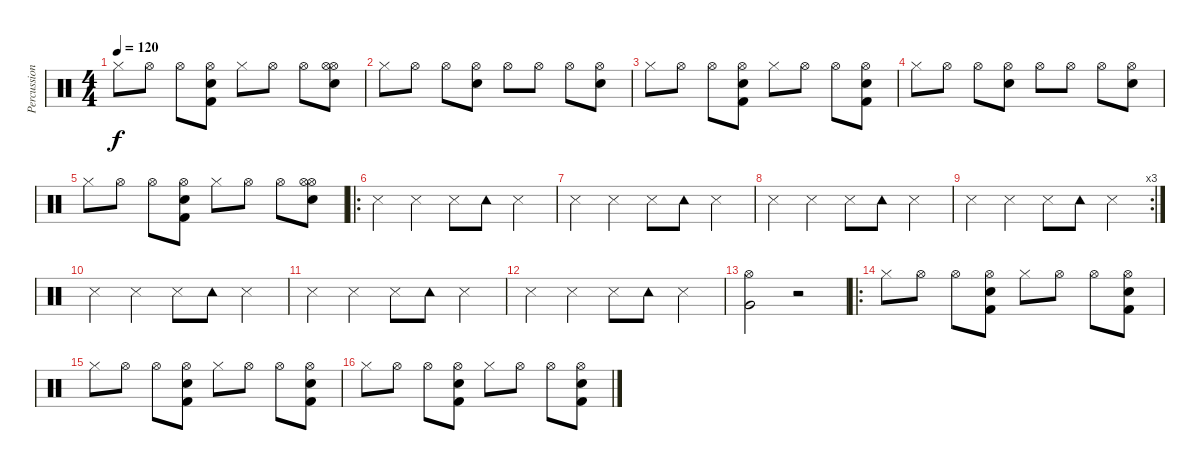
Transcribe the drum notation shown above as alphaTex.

\track ("Percussion" "Percussion") {instrument percussion}
\staff {score}
\articulation defaults
\ts (4 4)
\tempo 120
\clef neutral
\ks c "Hi-Hat (closed)".8{dy f} "Hi-Hat (open)".8 "Hi-Hat (open)".8
("Snare (hit) 2" "Kick (hit) 2" "Hi-Hat (open)").8 "Hi-Hat (closed)".8 "Hi-Hat (open)".8 "Hi-Hat (open)".8 ("Snare (hit) 2" "Hi-Hat (open)" "Hi-Hat (open)").8 |
"Hi-Hat (closed)".8 "Hi-Hat (open)".8 "Hi-Hat (open)".8 ("Snare (hit) 2" "Hi-Hat (open)").8 "Hi-Hat (open)".8 "Hi-Hat (open)".8 "Hi-Hat (open)".8 ("Snare (hit) 2" "Hi-Hat (open)").8 |
"Hi-Hat (closed)".8 "Hi-Hat (open)".8 "Hi-Hat (open)".8 ("Snare (hit) 2" "Kick (hit) 2" "Hi-Hat (open)").8 "Hi-Hat (closed)".8 "Hi-Hat (open)".8 "Hi-Hat (open)".8 ("Snare (hit) 2" "Kick (hit) 2" "Hi-Hat (open)").8 |
"Hi-Hat (closed)".8 "Hi-Hat (open)".8 "Hi-Hat (open)".8 ("Snare (hit) 2" "Hi-Hat (open)").8 "Hi-Hat (open)".8 "Hi-Hat (open)".8 "Hi-Hat (open)".8 ("Snare (hit) 2" "Hi-Hat (open)").8 |
"Hi-Hat (closed)".8 "Hi-Hat (open)".8 "Hi-Hat (open)".8 ("Snare (hit) 2" "Kick (hit) 2" "Hi-Hat (open)").8 "Hi-Hat (closed)".8 "Hi-Hat (open)".8 "Hi-Hat (open)".8 ("Snare (hit) 2" "Hi-Hat (open)" "Hi-Hat (open)").8 |
\ro "Snare (side stick) 3".4 "Snare (side stick) 3".4 "Snare (side stick) 3".8 "Tambourine (hit)".8 "Snare (side stick) 3".4
|
"Snare (side stick) 3".4 "Snare (side stick) 3".4 "Snare (side stick) 3".8 "Tambourine (hit)".8 "Snare (side stick) 3".4 |
"Snare (side stick) 3".4 "Snare (side stick) 3".4 "Snare (side stick) 3".8 "Tambourine (hit)".8 "Snare (side stick) 3".4 |
\rc 3 "Snare (side stick) 3".4 "Snare (side stick) 3".4 "Snare (side stick) 3".8 "Tambourine (hit)".8 "Snare (side stick) 3".4
|
"Snare (side stick) 3".4 "Snare (side stick) 3".4 "Snare (side stick) 3".8 "Tambourine (hit)".8 "Snare (side stick) 3".4 |
"Snare (side stick) 3".4 "Snare (side stick) 3".4 "Snare (side stick) 3".8 "Tambourine (hit)".8 "Snare (side stick) 3".4 |
"Snare (side stick) 3".4 "Snare (side stick) 3".4 "Snare (side stick) 3".8 "Tambourine (hit)".8 "Snare (side stick) 3".4 |
("Very Low Tom (hit)" "Hi-Hat (open)").2 r.2 |
\ro "Hi-Hat (closed)".8 "Hi-Hat (open)".8 "Hi-Hat (open)".8
("Snare (hit) 2" "Kick (hit) 2" "Hi-Hat (open)").8 "Hi-Hat (closed)".8 "Hi-Hat (open)".8 "Hi-Hat (open)".8 ("Snare (hit) 2" "Kick (hit) 2" "Hi-Hat (open)").8 |
"Hi-Hat (closed)".8 "Hi-Hat (open)".8 "Hi-Hat (open)".8 ("Snare (hit) 2" "Kick (hit) 2" "Hi-Hat (open)").8 "Hi-Hat (closed)".8 "Hi-Hat (open)".8 "Hi-Hat (open)".8 ("Snare (hit) 2" "Kick (hit) 2" "Hi-Hat (open)").8 |
"Hi-Hat (closed)".8 "Hi-Hat (open)".8 "Hi-Hat (open)".8 ("Snare (hit) 2" "Kick (hit) 2" "Hi-Hat (open)").8 "Hi-Hat (closed)".8 "Hi-Hat (open)".8 "Hi-Hat (open)".8 ("Snare (hit) 2" "Kick (hit) 2" "Hi-Hat (open)").8
